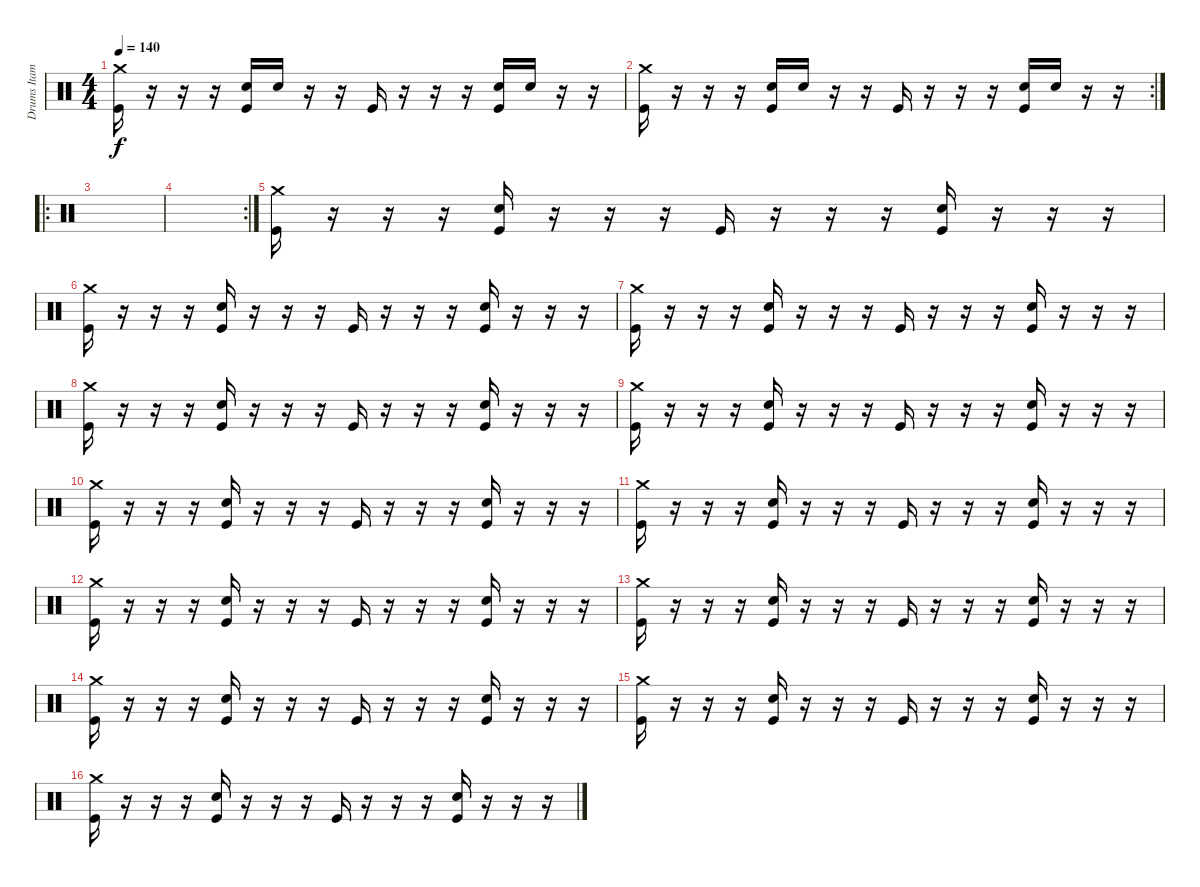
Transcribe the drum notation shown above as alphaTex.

\track ("Drums Itamar" "Drums Itam") {instrument percussion}
\staff {score}
\articulation defaults
\ts (4 4)
\tempo 140
\clef neutral
\ks c
("Kick (hit)" "Crash medium (hit)").16{dy f} r.16 r.16 r.16 ("Kick (hit)" "Snare (hit) 2").16 "Snare (hit) 2".16 r.16 r.16 "Kick (hit)".16 r.16 r.16 r.16 ("Kick (hit)" "Snare (hit) 2").16 "Snare (hit) 2".16 r.16 r.16 |
\rc 2
("Kick (hit)" "Crash medium (hit)").16 r.16 r.16 r.16 ("Kick (hit)" "Snare (hit) 2").16 "Snare (hit) 2".16 r.16 r.16 "Kick (hit)".16 r.16 r.16 r.16 ("Kick (hit)" "Snare (hit) 2").16 "Snare (hit) 2".16 r.16 r.16 |
\ro
|
\rc 2
|
("Kick (hit)" "Crash medium (hit)").16 r.16 r.16 r.16 ("Kick (hit)" "Snare (hit) 2").16 r.16 r.16 r.16 "Kick (hit)".16 r.16 r.16 r.16 ("Kick (hit)" "Snare (hit) 2").16 r.16 r.16 r.16 |
("Kick (hit)" "Crash medium (hit)").16 r.16 r.16 r.16 ("Kick (hit)" "Snare (hit) 2").16 r.16 r.16 r.16 "Kick (hit)".16 r.16 r.16 r.16 ("Kick (hit)" "Snare (hit) 2").16 r.16 r.16 r.16 |
("Kick (hit)" "Crash medium (hit)").16 r.16 r.16 r.16 ("Kick (hit)" "Snare (hit) 2").16 r.16 r.16 r.16 "Kick (hit)".16 r.16 r.16 r.16 ("Kick (hit)" "Snare (hit) 2").16 r.16 r.16 r.16 |
("Kick (hit)" "Crash medium (hit)").16 r.16 r.16 r.16 ("Kick (hit)" "Snare (hit) 2").16 r.16 r.16 r.16 "Kick (hit)".16 r.16 r.16 r.16 ("Kick (hit)" "Snare (hit) 2").16 r.16 r.16 r.16 |
("Kick (hit)" "Crash medium (hit)").16 r.16 r.16 r.16 ("Kick (hit)" "Snare (hit) 2").16 r.16 r.16 r.16 "Kick (hit)".16 r.16 r.16 r.16 ("Kick (hit)" "Snare (hit) 2").16 r.16 r.16 r.16 |
("Kick (hit)" "Crash medium (hit)").16 r.16 r.16 r.16 ("Kick (hit)" "Snare (hit) 2").16 r.16 r.16 r.16 "Kick (hit)".16 r.16 r.16 r.16 ("Kick (hit)" "Snare (hit) 2").16 r.16 r.16 r.16 |
("Kick (hit)" "Crash medium (hit)").16 r.16 r.16 r.16 ("Kick (hit)" "Snare (hit) 2").16 r.16 r.16 r.16 "Kick (hit)".16 r.16 r.16 r.16 ("Kick (hit)" "Snare (hit) 2").16 r.16 r.16 r.16 |
("Kick (hit)" "Crash medium (hit)").16 r.16 r.16 r.16 ("Kick (hit)" "Snare (hit) 2").16 r.16 r.16 r.16 "Kick (hit)".16 r.16 r.16 r.16 ("Kick (hit)" "Snare (hit) 2").16 r.16 r.16 r.16 |
("Kick (hit)" "Crash medium (hit)").16 r.16 r.16 r.16 ("Kick (hit)" "Snare (hit) 2").16 r.16 r.16 r.16 "Kick (hit)".16 r.16 r.16 r.16 ("Kick (hit)" "Snare (hit) 2").16 r.16 r.16 r.16 |
("Kick (hit)" "Crash medium (hit)").16 r.16 r.16 r.16 ("Kick (hit)" "Snare (hit) 2").16 r.16 r.16 r.16 "Kick (hit)".16 r.16 r.16 r.16 ("Kick (hit)" "Snare (hit) 2").16 r.16 r.16 r.16 |
("Kick (hit)" "Crash medium (hit)").16 r.16 r.16 r.16 ("Kick (hit)" "Snare (hit) 2").16 r.16 r.16 r.16 "Kick (hit)".16 r.16 r.16 r.16 ("Kick (hit)" "Snare (hit) 2").16 r.16 r.16 r.16 |
("Kick (hit)" "Crash medium (hit)").16 r.16 r.16 r.16 ("Kick (hit)" "Snare (hit) 2").16 r.16 r.16 r.16 "Kick (hit)".16 r.16 r.16 r.16 ("Kick (hit)" "Snare (hit) 2").16 r.16 r.16 r.16
